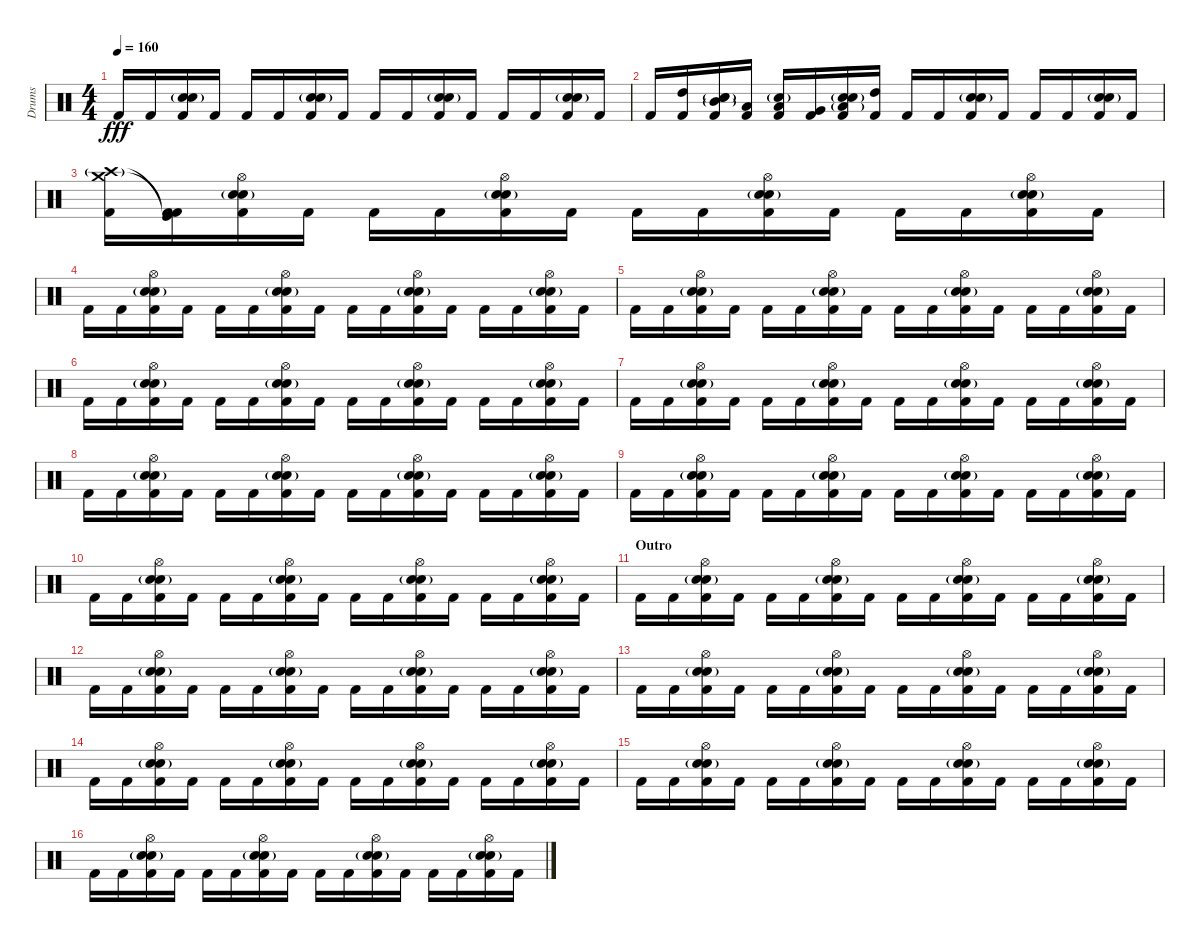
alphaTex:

\track ("Drums" "Drums") {instrument percussion}
\staff {score}
\articulation defaults
\ts (4 4)
\tempo 160
\clef neutral
\ks c "Kick (hit) 2".16{dy fff} "Kick (hit) 2".16
("Snare (hit) 2"{g} "Electric Snare (hit)" "Kick (hit) 2").16 "Kick (hit) 2".16 "Kick (hit) 2".16 "Kick (hit) 2".16 ("Snare (hit) 2"{g} "Electric Snare (hit)" "Kick (hit) 2").16 "Kick (hit) 2".16 "Kick (hit) 2".16 "Kick (hit) 2".16 ("Snare (hit) 2"{g} "Electric Snare (hit)" "Kick (hit) 2").16 "Kick (hit) 2".16 "Kick (hit) 2".16 "Kick (hit) 2".16 ("Snare (hit) 2"{g} "Electric Snare (hit)" "Kick (hit) 2").16 "Kick (hit) 2".16 |
"Kick (hit) 2".16 ("High Tom (hit)" "Kick (hit) 2").16 ("Mid Tom (hit)"{g} "Snare (hit) 2"{g} "Electric Snare (hit)" "Kick (hit) 2").16 ("Low Tom (hit)" "Kick (hit) 2").16 ("Snare (hit)"{g} "Low Tom (hit)" "Kick (hit) 2").16 ("Very Low Tom (hit)" "Kick (hit) 2").16 ("Low Floor Tom (hit)"{g} "Snare (hit) 2"{g} "Electric Snare (hit)" "Kick (hit) 2").16 ("High Tom (hit)" "Kick (hit) 2").16 "Kick (hit) 2".16 "Kick (hit) 2".16 ("Snare (hit) 2"{g} "Electric Snare (hit)" "Kick (hit) 2").16 "Kick (hit) 2".16 "Kick (hit) 2".16 "Kick (hit) 2".16 ("Snare (hit) 2"{g} "Electric Snare (hit)" "Kick (hit) 2").16 "Kick (hit) 2".16 |
("Crash medium (hit)" "Crash high (hit)"{g} "Kick (hit) 2").16 ("Kick (hit) 2"{t} "Kick (hit)"{t} "Kick (hit) 2").16 ("Hi-Hat (open)" "Snare (hit) 2"{g} "Electric Snare (hit)" "Kick (hit) 2").16 "Kick (hit) 2".16 "Kick (hit) 2".16 "Kick (hit) 2".16 ("Hi-Hat (open)" "Snare (hit) 2"{g} "Electric Snare (hit)" "Kick (hit) 2").16 "Kick (hit) 2".16 "Kick (hit) 2".16 "Kick (hit) 2".16 ("Hi-Hat (open)" "Snare (hit) 2"{g} "Electric Snare (hit)" "Kick (hit) 2").16 "Kick (hit) 2".16 "Kick (hit) 2".16 "Kick (hit) 2".16 ("Hi-Hat (open)" "Snare (hit) 2"{g} "Electric Snare (hit)" "Kick (hit) 2").16 "Kick (hit) 2".16 |
"Kick (hit) 2".16 "Kick (hit) 2".16 ("Hi-Hat (open)" "Snare (hit) 2"{g} "Electric Snare (hit)" "Kick (hit) 2").16 "Kick (hit) 2".16 "Kick (hit) 2".16 "Kick (hit) 2".16 ("Hi-Hat (open)" "Snare (hit) 2"{g} "Electric Snare (hit)" "Kick (hit) 2").16 "Kick (hit) 2".16 "Kick (hit) 2".16 "Kick (hit) 2".16 ("Hi-Hat (open)" "Snare (hit) 2"{g} "Electric Snare (hit)" "Kick (hit) 2").16 "Kick (hit) 2".16 "Kick (hit) 2".16 "Kick (hit) 2".16 ("Hi-Hat (open)" "Snare (hit) 2"{g} "Electric Snare (hit)" "Kick (hit) 2").16 "Kick (hit) 2".16 |
"Kick (hit) 2".16 "Kick (hit) 2".16 ("Hi-Hat (open)" "Snare (hit) 2"{g} "Electric Snare (hit)" "Kick (hit) 2").16 "Kick (hit) 2".16 "Kick (hit) 2".16 "Kick (hit) 2".16 ("Hi-Hat (open)" "Snare (hit) 2"{g} "Electric Snare (hit)" "Kick (hit) 2").16 "Kick (hit) 2".16 "Kick (hit) 2".16 "Kick (hit) 2".16 ("Hi-Hat (open)" "Snare (hit) 2"{g} "Electric Snare (hit)" "Kick (hit) 2").16 "Kick (hit) 2".16 "Kick (hit) 2".16 "Kick (hit) 2".16 ("Hi-Hat (open)" "Snare (hit) 2"{g} "Electric Snare (hit)" "Kick (hit) 2").16 "Kick (hit) 2".16 |
"Kick (hit) 2".16 "Kick (hit) 2".16 ("Hi-Hat (open)" "Snare (hit) 2"{g} "Electric Snare (hit)" "Kick (hit) 2").16 "Kick (hit) 2".16 "Kick (hit) 2".16 "Kick (hit) 2".16 ("Hi-Hat (open)" "Snare (hit) 2"{g} "Electric Snare (hit)" "Kick (hit) 2").16 "Kick (hit) 2".16 "Kick (hit) 2".16 "Kick (hit) 2".16 ("Hi-Hat (open)" "Snare (hit) 2"{g} "Electric Snare (hit)" "Kick (hit) 2").16 "Kick (hit) 2".16 "Kick (hit) 2".16 "Kick (hit) 2".16 ("Hi-Hat (open)" "Snare (hit) 2"{g} "Electric Snare (hit)" "Kick (hit) 2").16 "Kick (hit) 2".16 |
"Kick (hit) 2".16 "Kick (hit) 2".16 ("Hi-Hat (open)" "Snare (hit) 2"{g} "Electric Snare (hit)" "Kick (hit) 2").16 "Kick (hit) 2".16 "Kick (hit) 2".16 "Kick (hit) 2".16 ("Hi-Hat (open)" "Snare (hit) 2"{g} "Electric Snare (hit)" "Kick (hit) 2").16 "Kick (hit) 2".16 "Kick (hit) 2".16 "Kick (hit) 2".16 ("Hi-Hat (open)" "Snare (hit) 2"{g} "Electric Snare (hit)" "Kick (hit) 2").16 "Kick (hit) 2".16 "Kick (hit) 2".16 "Kick (hit) 2".16 ("Hi-Hat (open)" "Snare (hit) 2"{g} "Electric Snare (hit)" "Kick (hit) 2").16 "Kick (hit) 2".16 |
"Kick (hit) 2".16 "Kick (hit) 2".16 ("Hi-Hat (open)" "Snare (hit) 2"{g} "Electric Snare (hit)" "Kick (hit) 2").16 "Kick (hit) 2".16 "Kick (hit) 2".16 "Kick (hit) 2".16 ("Hi-Hat (open)" "Snare (hit) 2"{g} "Electric Snare (hit)" "Kick (hit) 2").16 "Kick (hit) 2".16 "Kick (hit) 2".16 "Kick (hit) 2".16 ("Hi-Hat (open)" "Snare (hit) 2"{g} "Electric Snare (hit)" "Kick (hit) 2").16 "Kick (hit) 2".16 "Kick (hit) 2".16 "Kick (hit) 2".16 ("Hi-Hat (open)" "Snare (hit) 2"{g} "Electric Snare (hit)" "Kick (hit) 2").16 "Kick (hit) 2".16 |
"Kick (hit) 2".16 "Kick (hit) 2".16 ("Hi-Hat (open)" "Snare (hit) 2"{g} "Electric Snare (hit)" "Kick (hit) 2").16 "Kick (hit) 2".16 "Kick (hit) 2".16 "Kick (hit) 2".16 ("Hi-Hat (open)" "Snare (hit) 2"{g} "Electric Snare (hit)" "Kick (hit) 2").16 "Kick (hit) 2".16 "Kick (hit) 2".16 "Kick (hit) 2".16 ("Hi-Hat (open)" "Snare (hit) 2"{g} "Electric Snare (hit)" "Kick (hit) 2").16 "Kick (hit) 2".16 "Kick (hit) 2".16 "Kick (hit) 2".16 ("Hi-Hat (open)" "Snare (hit) 2"{g} "Electric Snare (hit)" "Kick (hit) 2").16 "Kick (hit) 2".16 |
"Kick (hit) 2".16 "Kick (hit) 2".16 ("Hi-Hat (open)" "Snare (hit) 2"{g} "Electric Snare (hit)" "Kick (hit) 2").16 "Kick (hit) 2".16 "Kick (hit) 2".16 "Kick (hit) 2".16 ("Hi-Hat (open)" "Snare (hit) 2"{g} "Electric Snare (hit)" "Kick (hit) 2").16 "Kick (hit) 2".16 "Kick (hit) 2".16 "Kick (hit) 2".16 ("Hi-Hat (open)" "Snare (hit) 2"{g} "Electric Snare (hit)" "Kick (hit) 2").16 "Kick (hit) 2".16 "Kick (hit) 2".16 "Kick (hit) 2".16 ("Hi-Hat (open)" "Snare (hit) 2"{g} "Electric Snare (hit)" "Kick (hit) 2").16 "Kick (hit) 2".16 |
\section ("" "Outro")
"Kick (hit) 2".16 "Kick (hit) 2".16 ("Hi-Hat (open)" "Snare (hit) 2"{g} "Electric Snare (hit)" "Kick (hit) 2").16 "Kick (hit) 2".16 "Kick (hit) 2".16 "Kick (hit) 2".16 ("Hi-Hat (open)" "Snare (hit) 2"{g} "Electric Snare (hit)" "Kick (hit) 2").16 "Kick (hit) 2".16 "Kick (hit) 2".16 "Kick (hit) 2".16 ("Hi-Hat (open)" "Snare (hit) 2"{g} "Electric Snare (hit)" "Kick (hit) 2").16 "Kick (hit) 2".16 "Kick (hit) 2".16 "Kick (hit) 2".16 ("Hi-Hat (open)" "Snare (hit) 2"{g} "Electric Snare (hit)" "Kick (hit) 2").16 "Kick (hit) 2".16 |
"Kick (hit) 2".16 "Kick (hit) 2".16 ("Hi-Hat (open)" "Snare (hit) 2"{g} "Electric Snare (hit)" "Kick (hit) 2").16 "Kick (hit) 2".16 "Kick (hit) 2".16 "Kick (hit) 2".16 ("Hi-Hat (open)" "Snare (hit) 2"{g} "Electric Snare (hit)" "Kick (hit) 2").16 "Kick (hit) 2".16 "Kick (hit) 2".16 "Kick (hit) 2".16 ("Hi-Hat (open)" "Snare (hit) 2"{g} "Electric Snare (hit)" "Kick (hit) 2").16 "Kick (hit) 2".16 "Kick (hit) 2".16 "Kick (hit) 2".16 ("Hi-Hat (open)" "Snare (hit) 2"{g} "Electric Snare (hit)" "Kick (hit) 2").16 "Kick (hit) 2".16 |
"Kick (hit) 2".16 "Kick (hit) 2".16 ("Hi-Hat (open)" "Snare (hit) 2"{g} "Electric Snare (hit)" "Kick (hit) 2").16 "Kick (hit) 2".16 "Kick (hit) 2".16 "Kick (hit) 2".16 ("Hi-Hat (open)" "Snare (hit) 2"{g} "Electric Snare (hit)" "Kick (hit) 2").16 "Kick (hit) 2".16 "Kick (hit) 2".16 "Kick (hit) 2".16 ("Hi-Hat (open)" "Snare (hit) 2"{g} "Electric Snare (hit)" "Kick (hit) 2").16 "Kick (hit) 2".16 "Kick (hit) 2".16 "Kick (hit) 2".16 ("Hi-Hat (open)" "Snare (hit) 2"{g} "Electric Snare (hit)" "Kick (hit) 2").16 "Kick (hit) 2".16 |
"Kick (hit) 2".16 "Kick (hit) 2".16 ("Hi-Hat (open)" "Snare (hit) 2"{g} "Electric Snare (hit)" "Kick (hit) 2").16 "Kick (hit) 2".16 "Kick (hit) 2".16 "Kick (hit) 2".16 ("Hi-Hat (open)" "Snare (hit) 2"{g} "Electric Snare (hit)" "Kick (hit) 2").16 "Kick (hit) 2".16 "Kick (hit) 2".16 "Kick (hit) 2".16 ("Hi-Hat (open)" "Snare (hit) 2"{g} "Electric Snare (hit)" "Kick (hit) 2").16 "Kick (hit) 2".16 "Kick (hit) 2".16 "Kick (hit) 2".16 ("Hi-Hat (open)" "Snare (hit) 2"{g} "Electric Snare (hit)" "Kick (hit) 2").16 "Kick (hit) 2".16 |
"Kick (hit) 2".16 "Kick (hit) 2".16 ("Hi-Hat (open)" "Snare (hit) 2"{g} "Electric Snare (hit)" "Kick (hit) 2").16 "Kick (hit) 2".16 "Kick (hit) 2".16 "Kick (hit) 2".16 ("Hi-Hat (open)" "Snare (hit) 2"{g} "Electric Snare (hit)" "Kick (hit) 2").16 "Kick (hit) 2".16 "Kick (hit) 2".16 "Kick (hit) 2".16 ("Hi-Hat (open)" "Snare (hit) 2"{g} "Electric Snare (hit)" "Kick (hit) 2").16 "Kick (hit) 2".16 "Kick (hit) 2".16 "Kick (hit) 2".16 ("Hi-Hat (open)" "Snare (hit) 2"{g} "Electric Snare (hit)" "Kick (hit) 2").16 "Kick (hit) 2".16 |
"Kick (hit) 2".16 "Kick (hit) 2".16 ("Hi-Hat (open)" "Snare (hit) 2"{g} "Electric Snare (hit)" "Kick (hit) 2").16 "Kick (hit) 2".16 "Kick (hit) 2".16 "Kick (hit) 2".16 ("Hi-Hat (open)" "Snare (hit) 2"{g} "Electric Snare (hit)" "Kick (hit) 2").16 "Kick (hit) 2".16 "Kick (hit) 2".16 "Kick (hit) 2".16 ("Hi-Hat (open)" "Snare (hit) 2"{g} "Electric Snare (hit)" "Kick (hit) 2").16 "Kick (hit) 2".16 "Kick (hit) 2".16 "Kick (hit) 2".16 ("Hi-Hat (open)" "Snare (hit) 2"{g} "Electric Snare (hit)" "Kick (hit) 2").16 "Kick (hit) 2".16
